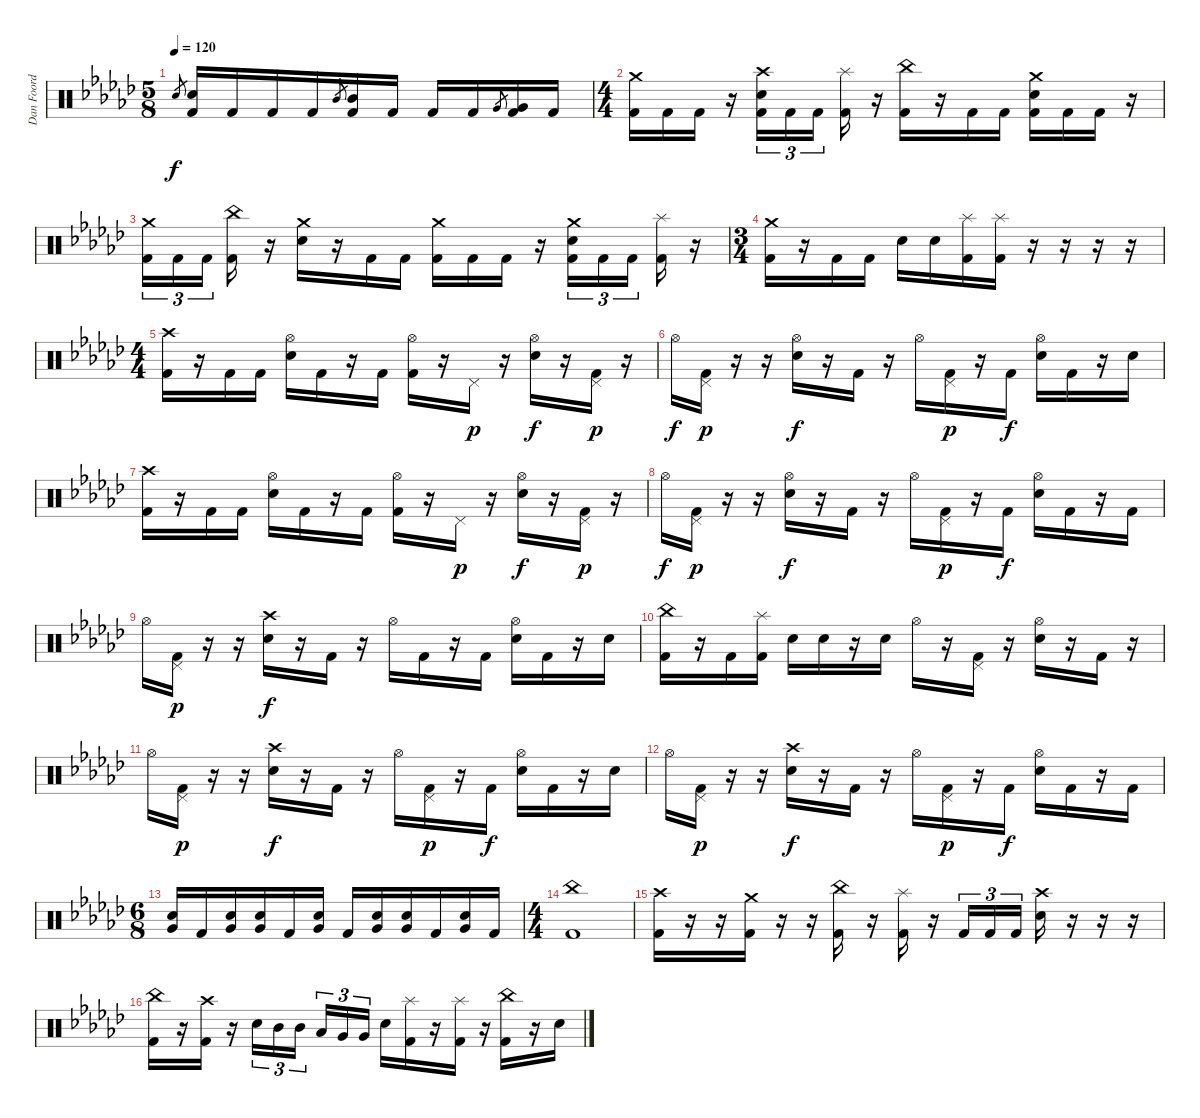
\track ("Dan Foord 2" "Dan Foord ") {instrument percussion}
\staff {score}
\articulation defaults
\ts (5 8)
\tempo 120
\clef neutral
\ks gb "Snare (hit) 2".8{gr dy f}
("Snare (hit) 2" "Kick (hit) 2").16 "Kick (hit) 2".16 "Kick (hit) 2".16 "Kick (hit) 2".16 "Mid Tom (hit)".8{gr} ("Mid Tom (hit)" "Kick (hit) 2").16 "Kick (hit) 2".16 "Kick (hit) 2".16 "Kick (hit) 2".16 "Very Low Tom (hit)".8{gr} ("Very Low Tom (hit)" "Kick (hit) 2").16 "Kick (hit) 2".16 |
\ts (4 4)
("Crash medium (hit)" "Kick (hit) 2").16 "Kick (hit) 2".16 "Kick (hit) 2".16 r.16 ("Crash high (hit)" "Snare (hit) 2" "Kick (hit) 2").16{tu (3 2)} "Kick (hit) 2".16{tu (3 2)} "Kick (hit) 2".16{tu (3 2) beam splitsecondary} ("Splash (hit)" "Kick (hit) 2").16 r.16 ("China (hit)" "Kick (hit) 2").16 r.16 "Kick (hit) 2".16 "Kick (hit) 2".16 ("Crash medium (hit)" "Snare (hit) 2" "Kick (hit) 2").16 "Kick (hit) 2".16 "Kick (hit) 2".16 r.16 |
("Crash medium (hit)" "Kick (hit) 2").16{tu (3 2)} "Kick (hit) 2".16{tu (3 2)} "Kick (hit) 2".16{tu (3 2) beam splitsecondary} ("China (hit)" "Kick (hit) 2").16 r.16 ("Crash medium (hit)" "Snare (hit) 2").16 r.16 "Kick (hit) 2".16 "Kick (hit) 2".16 ("Crash medium (hit)" "Kick (hit) 2").16 "Kick (hit) 2".16 "Kick (hit) 2".16 r.16 ("Crash medium (hit)" "Snare (hit) 2" "Kick (hit) 2").16{tu (3 2)} "Kick (hit) 2".16{tu (3 2)} "Kick (hit) 2".16{tu (3 2) beam splitsecondary} ("Splash (hit)" "Kick (hit) 2").16 r.16 |
\ts (3 4)
("Crash medium (hit)" "Kick (hit) 2").16 r.16 "Kick (hit) 2".16 "Kick (hit) 2".16 "Snare (hit) 2".16 "Snare (hit) 2".16 ("Splash (hit)" "Kick (hit) 2").16 ("Splash (hit)" "Kick (hit) 2").16 r.16 r.16 r.16 r.16 |
\ts (4 4)
("Crash high (hit)" "Kick (hit) 2").16 r.16 "Kick (hit) 2".16 "Kick (hit) 2".16 ("Hi-Hat (open)" "Snare (hit) 2").16 "Kick (hit) 2".16 r.16 "Kick (hit) 2".16 ("Hi-Hat (open)" "Kick (hit) 2").16 r.16 "Pedal Hi-Hat (hit)".16{dy p} r.16 ("Hi-Hat (open)" "Snare (hit) 2").16{dy f} r.16 ("Pedal Hi-Hat (hit)" "Kick (hit) 2").16{dy p} r.16 |
"Hi-Hat (open)".16{dy f} ("Pedal Hi-Hat (hit)" "Kick (hit) 2").16{dy p} r.16 r.16 ("Hi-Hat (open)" "Snare (hit) 2").16{dy f} r.16 "Kick (hit) 2".16 r.16 "Hi-Hat (open)".16 ("Pedal Hi-Hat (hit)" "Kick (hit) 2").16{dy p} r.16 "Kick (hit) 2".16{dy f} ("Hi-Hat (open)" "Snare (hit) 2").16 "Kick (hit) 2".16 r.16 "Snare (hit) 2".16 |
("Crash high (hit)" "Kick (hit) 2").16 r.16 "Kick (hit) 2".16 "Kick (hit) 2".16 ("Hi-Hat (open)" "Snare (hit) 2").16 "Kick (hit) 2".16 r.16 "Kick (hit) 2".16 ("Hi-Hat (open)" "Kick (hit) 2").16 r.16 "Pedal Hi-Hat (hit)".16{dy p} r.16 ("Hi-Hat (open)" "Snare (hit) 2").16{dy f} r.16 ("Pedal Hi-Hat (hit)" "Kick (hit) 2").16{dy p} r.16 |
"Hi-Hat (open)".16{dy f} ("Pedal Hi-Hat (hit)" "Kick (hit) 2").16{dy p} r.16 r.16 ("Hi-Hat (open)" "Snare (hit) 2").16{dy f} r.16 "Kick (hit) 2".16 r.16 "Hi-Hat (open)".16 ("Pedal Hi-Hat (hit)" "Kick (hit) 2").16{dy p} r.16 "Kick (hit) 2".16{dy f} ("Hi-Hat (open)" "Snare (hit) 2").16 "Kick (hit) 2".16 r.16 "Kick (hit) 2".16 |
"Hi-Hat (open)".16 ("Pedal Hi-Hat (hit)" "Kick (hit) 2").16{dy p} r.16 r.16 ("Crash high (hit)" "Snare (hit) 2").16{dy f} r.16 "Kick (hit) 2".16 r.16 "Hi-Hat (open)".16 "Kick (hit) 2".16 r.16 "Kick (hit) 2".16 ("Hi-Hat (open)" "Snare (hit) 2").16 "Kick (hit) 2".16 r.16 "Snare (hit) 2".16 |
("China (hit)" "Kick (hit) 2").16 r.16 "Kick (hit) 2".16 ("Splash (hit)" "Kick (hit) 2").16 "Snare (hit) 2".16 "Snare (hit) 2".16 r.16 "Snare (hit) 2".16 "Hi-Hat (open)".16 r.16 ("Pedal Hi-Hat (hit)" "Kick (hit) 2").16 r.16 ("Hi-Hat (open)" "Snare (hit) 2").16 r.16 "Kick (hit) 2".16 r.16 |
"Hi-Hat (open)".16 ("Pedal Hi-Hat (hit)" "Kick (hit) 2").16{dy p} r.16 r.16 ("Crash high (hit)" "Snare (hit) 2").16{dy f} r.16 "Kick (hit) 2".16 r.16 "Hi-Hat (open)".16 ("Pedal Hi-Hat (hit)" "Kick (hit) 2").16{dy p} r.16 "Kick (hit) 2".16{dy f} ("Hi-Hat (open)" "Snare (hit) 2").16 "Kick (hit) 2".16 r.16 "Snare (hit) 2".16 |
"Hi-Hat (open)".16 ("Pedal Hi-Hat (hit)" "Kick (hit) 2").16{dy p} r.16 r.16 ("Crash high (hit)" "Snare (hit) 2").16{dy f} r.16 "Kick (hit) 2".16 r.16 "Hi-Hat (open)".16 ("Pedal Hi-Hat (hit)" "Kick (hit) 2").16{dy p} r.16 "Kick (hit) 2".16{dy f} ("Hi-Hat (open)" "Snare (hit) 2").16 "Kick (hit) 2".16 r.16 "Kick (hit) 2".16 |
\ts (6 8)
("Snare (hit) 2" "Very Low Tom (hit)").16 "Kick (hit) 2".16 ("Snare (hit) 2" "Very Low Tom (hit)").16 ("Snare (hit) 2" "Very Low Tom (hit)").16 "Kick (hit) 2".16 ("Snare (hit) 2" "Very Low Tom (hit)").16 "Kick (hit) 2".16 ("Snare (hit) 2" "Very Low Tom (hit)").16 ("Snare (hit) 2" "Very Low Tom (hit)").16 "Kick (hit) 2".16 ("Snare (hit) 2" "Very Low Tom (hit)").16 "Kick (hit) 2".16 |
\ts (4 4)
("China (hit)" "Kick (hit) 2").1 |
("Crash high (hit)" "Kick (hit) 2").16 r.16 r.16 ("Crash medium (hit)" "Kick (hit) 2").16 r.16 r.16 ("China (hit)" "Kick (hit) 2").16 r.16 ("Splash (hit)" "Kick (hit) 2").16 r.16 "Kick (hit) 2".16{tu (3 2)} "Kick (hit) 2".16{tu (3 2)} "Kick (hit) 2".16{tu (3 2)} ("Crash high (hit)" "Snare (hit) 2").16 r.16 r.16 r.16 |
("China (hit)" "Kick (hit) 2").16 r.16 ("Crash high (hit)" "Kick (hit) 2").16 r.16 "Snare (hit) 2".16{tu (3 2)} "Mid Tom (hit)".16{tu (3 2)} "Mid Tom (hit)".16{tu (3 2) beam splitsecondary} "Low Tom (hit)".16{tu (3 2)} "Very Low Tom (hit)".16{tu (3 2)} "Very Low Tom (hit)".16{tu (3 2)} "Snare (hit) 2".16 ("Splash (hit)" "Kick (hit) 2").16 r.16 ("Splash (hit)" "Kick (hit) 2").16 r.16 ("China (hit)" "Kick (hit) 2").16 r.16 "Snare (hit) 2".16
